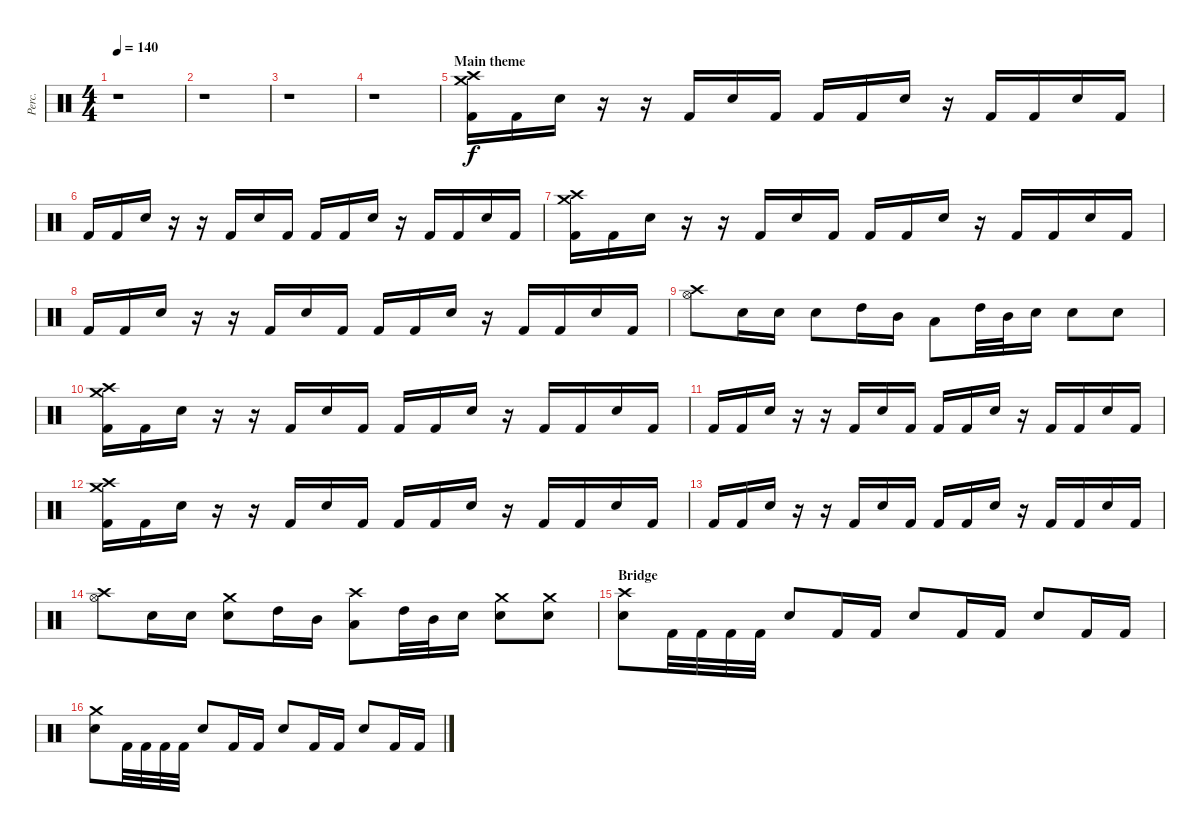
\track ("Perc." "Perc.") {instrument percussion}
\staff {score}
\articulation defaults
\ts (4 4)
\tempo 140
\clef neutral
\ks c
r.1{dy f} |
r.1 |
r.1 |
r.1 |
\section ("" "Main theme")
("Crash high (hit)" "Crash medium (hit)" "Kick (hit) 2").16 "Kick (hit) 2".16 "Electric Snare (hit)".16 r.16 r.16 "Kick (hit) 2".16 "Electric Snare (hit)".16 "Kick (hit) 2".16 "Kick (hit) 2".16 "Kick (hit) 2".16 "Electric Snare (hit)".16 r.16 "Kick (hit) 2".16 "Kick (hit) 2".16 "Electric Snare (hit)".16 "Kick (hit) 2".16 |
"Kick (hit) 2".16 "Kick (hit) 2".16 "Electric Snare (hit)".16 r.16 r.16 "Kick (hit) 2".16 "Electric Snare (hit)".16 "Kick (hit) 2".16 "Kick (hit) 2".16 "Kick (hit) 2".16 "Electric Snare (hit)".16 r.16 "Kick (hit) 2".16 "Kick (hit) 2".16 "Electric Snare (hit)".16 "Kick (hit) 2".16 |
("Crash high (hit)" "Crash medium (hit)" "Kick (hit) 2").16 "Kick (hit) 2".16 "Electric Snare (hit)".16 r.16 r.16 "Kick (hit) 2".16 "Electric Snare (hit)".16 "Kick (hit) 2".16 "Kick (hit) 2".16 "Kick (hit) 2".16 "Electric Snare (hit)".16 r.16 "Kick (hit) 2".16 "Kick (hit) 2".16 "Electric Snare (hit)".16 "Kick (hit) 2".16 |
"Kick (hit) 2".16 "Kick (hit) 2".16 "Electric Snare (hit)".16 r.16 r.16 "Kick (hit) 2".16 "Electric Snare (hit)".16 "Kick (hit) 2".16 "Kick (hit) 2".16 "Kick (hit) 2".16 "Electric Snare (hit)".16 r.16 "Kick (hit) 2".16 "Kick (hit) 2".16 "Electric Snare (hit)".16 "Kick (hit) 2".16 |
("Crash high (hit)" "Hi-Hat (open)").8 "Electric Snare (hit)".16 "Electric Snare (hit)".16 "Electric Snare (hit)".8 "High Tom (hit)".16 "Mid Tom (hit)".16 "Low Tom (hit)".8 "High Tom (hit)".32 "Mid Tom (hit)".32 "Electric Snare (hit)".16 "Electric Snare (hit)".8 "Electric Snare (hit)".8 |
("Crash high (hit)" "Crash medium (hit)" "Kick (hit) 2").16 "Kick (hit) 2".16 "Electric Snare (hit)".16 r.16 r.16 "Kick (hit) 2".16 "Electric Snare (hit)".16 "Kick (hit) 2".16 "Kick (hit) 2".16 "Kick (hit) 2".16 "Electric Snare (hit)".16 r.16 "Kick (hit) 2".16 "Kick (hit) 2".16 "Electric Snare (hit)".16 "Kick (hit) 2".16 |
"Kick (hit) 2".16 "Kick (hit) 2".16 "Electric Snare (hit)".16 r.16 r.16 "Kick (hit) 2".16 "Electric Snare (hit)".16 "Kick (hit) 2".16 "Kick (hit) 2".16 "Kick (hit) 2".16 "Electric Snare (hit)".16 r.16 "Kick (hit) 2".16 "Kick (hit) 2".16 "Electric Snare (hit)".16 "Kick (hit) 2".16 |
("Crash high (hit)" "Crash medium (hit)" "Kick (hit) 2").16 "Kick (hit) 2".16 "Electric Snare (hit)".16 r.16 r.16 "Kick (hit) 2".16 "Electric Snare (hit)".16 "Kick (hit) 2".16 "Kick (hit) 2".16 "Kick (hit) 2".16 "Electric Snare (hit)".16 r.16 "Kick (hit) 2".16 "Kick (hit) 2".16 "Electric Snare (hit)".16 "Kick (hit) 2".16 |
"Kick (hit) 2".16 "Kick (hit) 2".16 "Electric Snare (hit)".16 r.16 r.16 "Kick (hit) 2".16 "Electric Snare (hit)".16 "Kick (hit) 2".16 "Kick (hit) 2".16 "Kick (hit) 2".16 "Electric Snare (hit)".16 r.16 "Kick (hit) 2".16 "Kick (hit) 2".16 "Electric Snare (hit)".16 "Kick (hit) 2".16 |
("Crash high (hit)" "Hi-Hat (open)").8 "Electric Snare (hit)".16 "Electric Snare (hit)".16 ("Crash medium (hit)" "Electric Snare (hit)").8 "High Tom (hit)".16 "Mid Tom (hit)".16 ("Crash high (hit)" "Low Tom (hit)").8 "High Tom (hit)".32 "Mid Tom (hit)".32 "Electric Snare (hit)".16 ("Crash medium (hit)" "Electric Snare (hit)").8 ("Crash medium (hit)" "Electric Snare (hit)").8 |
\section ("" "Bridge")
("Crash high (hit)" "Electric Snare (hit)").8 "Kick (hit) 2".32 "Kick (hit) 2".32 "Kick (hit) 2".32 "Kick (hit) 2".32 "Electric Snare (hit)".8 "Kick (hit) 2".16 "Kick (hit) 2".16 "Electric Snare (hit)".8 "Kick (hit) 2".16 "Kick (hit) 2".16 "Electric Snare (hit)".8 "Kick (hit) 2".16 "Kick (hit) 2".16 |
("Crash medium (hit)" "Electric Snare (hit)").8 "Kick (hit) 2".32 "Kick (hit) 2".32 "Kick (hit) 2".32 "Kick (hit) 2".32 "Electric Snare (hit)".8 "Kick (hit) 2".16 "Kick (hit) 2".16 "Electric Snare (hit)".8 "Kick (hit) 2".16 "Kick (hit) 2".16 "Electric Snare (hit)".8 "Kick (hit) 2".16 "Kick (hit) 2".16
